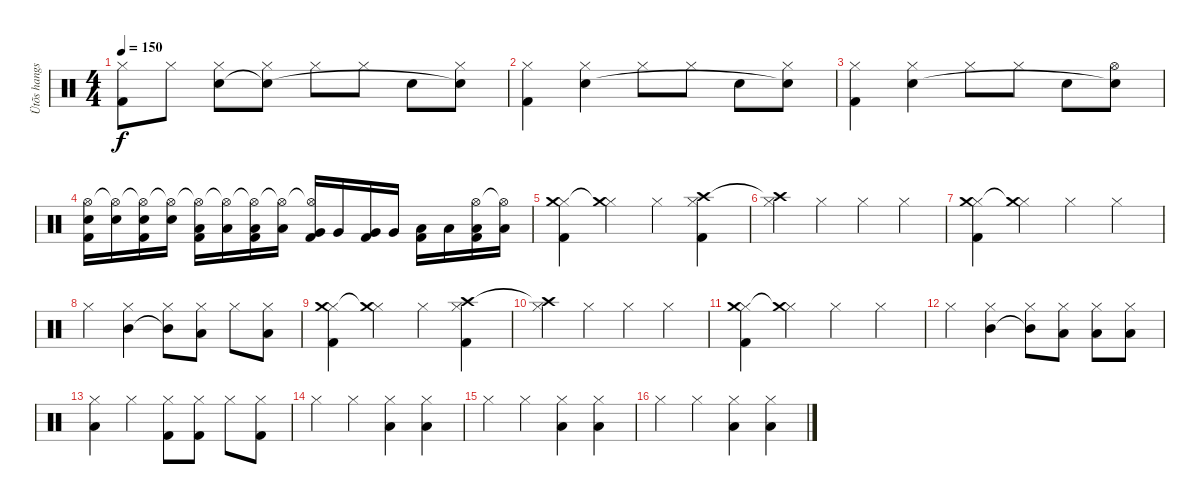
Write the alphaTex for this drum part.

\track ("Ütõs hangszer" "Ütõs hangs") {instrument percussion}
\staff {score}
\articulation defaults
\ts (4 4)
\tempo 150
\clef neutral
\ks c
("Hi-Hat (closed)" "Kick (hit) 2").8{dy f} "Hi-Hat (closed)".8 ("Hi-Hat (closed)" "Snare (hit) 2").8 ("Hi-Hat (closed)" "Snare (hit) 2"{t}).8 "Hi-Hat (closed)".8 "Hi-Hat (closed)".8 "Snare (hit) 2".8 ("Hi-Hat (closed)" "Snare (hit) 2"{t}).8 |
("Hi-Hat (closed)" "Kick (hit) 2").4 ("Hi-Hat (closed)" "Snare (hit) 2").4 "Hi-Hat (closed)".8 "Hi-Hat (closed)".8 "Snare (hit) 2".8 ("Hi-Hat (closed)" "Snare (hit) 2"{t}).8 |
("Hi-Hat (closed)" "Kick (hit) 2").4 ("Hi-Hat (closed)" "Snare (hit) 2").4 "Hi-Hat (closed)".8 "Hi-Hat (closed)".8 "Snare (hit) 2".8 ("Hi-Hat (open)" "Snare (hit) 2"{t}).8 |
("Hi-Hat (open)" "Snare (hit) 2" "Kick (hit) 2").16 ("Hi-Hat (open)"{t} "Snare (hit) 2").16 ("Hi-Hat (open)"{t} "Snare (hit) 2" "Kick (hit) 2").16 ("Hi-Hat (open)"{t} "Snare (hit) 2").16 ("Hi-Hat (open)"{t} "Low Tom (hit)" "Kick (hit) 2").16 ("Hi-Hat (open)"{t} "Low Tom (hit)").16 ("Hi-Hat (open)"{t} "Low Tom (hit)" "Kick (hit) 2").16 ("Hi-Hat (open)"{t} "Low Tom (hit)").16 ("Hi-Hat (open)"{t} "Very Low Tom (hit)" "Kick (hit) 2").16 "Very Low Tom (hit)".16 ("Very Low Tom (hit)" "Kick (hit) 2").16 "Very Low Tom (hit)".16 ("Low Floor Tom (hit)" "Kick (hit) 2").16 "Low Floor Tom (hit)".16 ("Hi-Hat (open)" "Low Floor Tom (hit)" "Kick (hit) 2").16 ("Hi-Hat (open)"{t} "Low Floor Tom (hit)").16 |
("Hi-Hat (closed)" "Crash medium (hit)" "Kick (hit) 2").4 ("Hi-Hat (closed)" "Crash medium (hit)"{t}).4 "Hi-Hat (closed)".4 ("Hi-Hat (closed)" "Crash high (hit)" "Kick (hit) 2").4 |
("Hi-Hat (closed)" "Crash high (hit)"{t}).4 "Hi-Hat (closed)".4 "Hi-Hat (closed)".4 "Hi-Hat (closed)".4 |
("Hi-Hat (closed)" "Crash medium (hit)" "Kick (hit) 2").4 ("Hi-Hat (closed)" "Crash medium (hit)"{t}).4 "Hi-Hat (closed)".4 "Hi-Hat (closed)".4 |
"Hi-Hat (closed)".4 ("Hi-Hat (closed)" "Mid Tom (hit)").4 ("Hi-Hat (closed)" "Mid Tom (hit)"{t}).8 ("Hi-Hat (closed)" "Low Tom (hit)").8 "Hi-Hat (closed)".8 ("Hi-Hat (closed)" "Low Floor Tom (hit)").8 |
("Hi-Hat (closed)" "Crash medium (hit)" "Kick (hit) 2").4 ("Hi-Hat (closed)" "Crash medium (hit)"{t}).4 "Hi-Hat (closed)".4 ("Hi-Hat (closed)" "Crash high (hit)" "Kick (hit) 2").4 |
("Hi-Hat (closed)" "Crash high (hit)"{t}).4 "Hi-Hat (closed)".4 "Hi-Hat (closed)".4 "Hi-Hat (closed)".4 |
("Hi-Hat (closed)" "Crash medium (hit)" "Kick (hit) 2").4 ("Hi-Hat (closed)" "Crash medium (hit)"{t}).4 "Hi-Hat (closed)".4 "Hi-Hat (closed)".4 |
"Hi-Hat (closed)".4 ("Hi-Hat (closed)" "Mid Tom (hit)").4 ("Hi-Hat (closed)" "Mid Tom (hit)"{t}).8 ("Hi-Hat (closed)" "Low Tom (hit)").8 ("Hi-Hat (closed)" "Low Tom (hit)").8 ("Hi-Hat (closed)" "Low Floor Tom (hit)").8 |
("Hi-Hat (closed)" "Low Floor Tom (hit)").4 "Hi-Hat (closed)".4 ("Hi-Hat (closed)" "Kick (hit) 2").8 ("Hi-Hat (closed)" "Kick (hit) 2").8 "Hi-Hat (closed)".8 ("Hi-Hat (closed)" "Kick (hit) 2").8 |
"Hi-Hat (closed)".4 "Hi-Hat (closed)".4 ("Hi-Hat (closed)" "Low Tom (hit)").4 ("Hi-Hat (closed)" "Low Tom (hit)").4 |
"Hi-Hat (closed)".4 "Hi-Hat (closed)".4 ("Hi-Hat (closed)" "Low Floor Tom (hit)").4 ("Hi-Hat (closed)" "Low Floor Tom (hit)").4 |
"Hi-Hat (closed)".4 "Hi-Hat (closed)".4 ("Hi-Hat (closed)" "Low Tom (hit)").4 ("Hi-Hat (closed)" "Low Floor Tom (hit)").4
